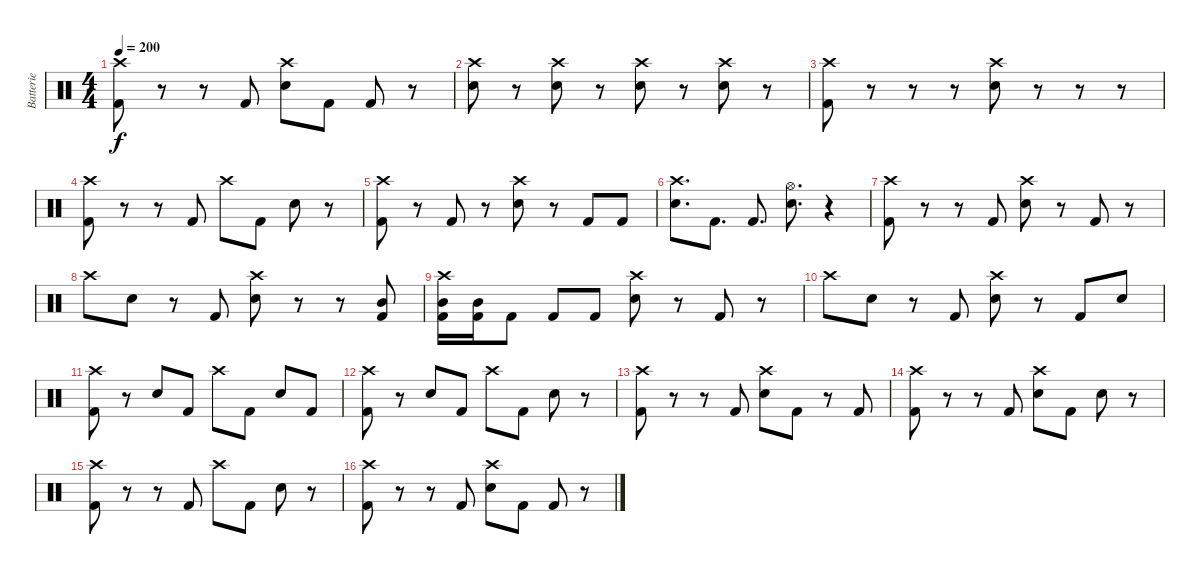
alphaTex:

\track ("Batterie" "Batterie") {instrument percussion}
\staff {score}
\articulation defaults
\ts (4 4)
\tempo 200
\clef neutral
\ks c
("Crash high (hit)" "Kick (hit) 2").8{dy f} r.8 r.8 "Kick (hit) 2".8 ("Crash high (hit)" "Electric Snare (hit)").8 "Kick (hit) 2".8 "Kick (hit) 2".8 r.8 |
("Crash high (hit)" "Electric Snare (hit)").8 r.8 ("Crash high (hit)" "Electric Snare (hit)").8 r.8 ("Crash high (hit)" "Electric Snare (hit)").8 r.8 ("Crash high (hit)" "Electric Snare (hit)").8 r.8 |
("Crash high (hit)" "Kick (hit) 2").8 r.8 r.8 r.8 ("Crash high (hit)" "Electric Snare (hit)").8 r.8 r.8 r.8 |
("Crash high (hit)" "Kick (hit) 2").8 r.8 r.8 "Kick (hit) 2".8 "Crash high (hit)".8 "Kick (hit) 2".8 "Electric Snare (hit)".8 r.8 |
("Crash high (hit)" "Kick (hit) 2").8 r.8 "Kick (hit) 2".8 r.8 ("Crash high (hit)" "Electric Snare (hit)").8 r.8 "Kick (hit) 2".8 "Kick (hit) 2".8 |
("Crash high (hit)" "Electric Snare (hit)").8{d} "Kick (hit) 2".8{d} "Kick (hit) 2".8{d} ("Hi-Hat (open)" "Electric Snare (hit)").8{d} r.4 |
("Crash high (hit)" "Kick (hit) 2").8 r.8 r.8 "Kick (hit) 2".8 ("Crash high (hit)" "Electric Snare (hit)").8 r.8 "Kick (hit) 2".8 r.8 |
"Crash high (hit)".8 "Electric Snare (hit)".8 r.8 "Kick (hit) 2".8 ("Crash high (hit)" "Electric Snare (hit)").8 r.8 r.8 ("Mid Tom (hit)" "Kick (hit) 2").8 |
("Crash high (hit)" "Mid Tom (hit)" "Kick (hit) 2").16 ("Mid Tom (hit)" "Kick (hit) 2").16 "Kick (hit) 2".8 "Kick (hit) 2".8 "Kick (hit) 2".8 ("Crash high (hit)" "Electric Snare (hit)").8 r.8 "Kick (hit) 2".8 r.8 |
"Crash high (hit)".8 "Electric Snare (hit)".8 r.8 "Kick (hit) 2".8 ("Crash high (hit)" "Electric Snare (hit)").8 r.8 "Kick (hit) 2".8 "Electric Snare (hit)".8 |
("Crash high (hit)" "Kick (hit) 2").8 r.8 "Electric Snare (hit)".8 "Kick (hit) 2".8 "Crash high (hit)".8 "Kick (hit) 2".8 "Electric Snare (hit)".8 "Kick (hit) 2".8 |
("Crash high (hit)" "Kick (hit) 2").8 r.8 "Electric Snare (hit)".8 "Kick (hit) 2".8 "Crash high (hit)".8 "Kick (hit) 2".8 "Electric Snare (hit)".8 r.8 |
("Crash high (hit)" "Kick (hit) 2").8 r.8 r.8 "Kick (hit) 2".8 ("Crash high (hit)" "Electric Snare (hit)").8 "Kick (hit) 2".8 r.8 "Kick (hit) 2".8 |
("Crash high (hit)" "Kick (hit) 2").8 r.8 r.8 "Kick (hit) 2".8 ("Crash high (hit)" "Electric Snare (hit)").8 "Kick (hit) 2".8 "Electric Snare (hit)".8 r.8 |
("Crash high (hit)" "Kick (hit) 2").8 r.8 r.8 "Kick (hit) 2".8 "Crash high (hit)".8 "Kick (hit) 2".8 "Electric Snare (hit)".8 r.8 |
("Crash high (hit)" "Kick (hit) 2").8 r.8 r.8 "Kick (hit) 2".8 ("Crash high (hit)" "Electric Snare (hit)").8 "Kick (hit) 2".8 "Kick (hit) 2".8 r.8
